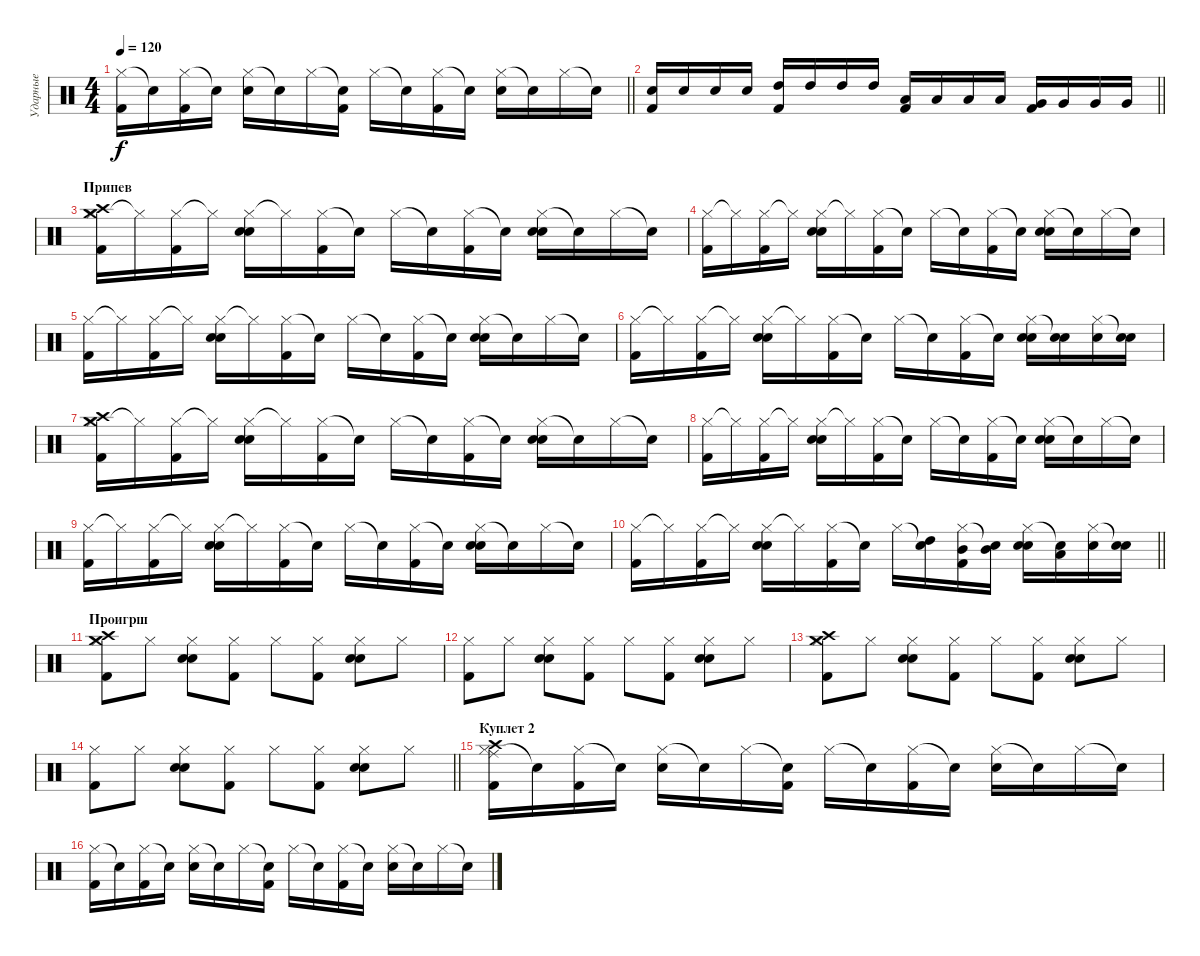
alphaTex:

\track ("Ударные" "Ударные") {instrument percussion}
\staff {score}
\articulation defaults
\ts (4 4)
\tempo 120
\clef neutral
\barLineRight lightlight
\ks c
("Hi-Hat (closed)" "Kick (hit) 2").16{dy f} "Snare (hit)"{t}.16 ("Hi-Hat (closed)" "Kick (hit) 2").16 "Snare (hit)"{t}.16 ("Hi-Hat (closed)" "Snare (hit) 2").16 "Snare (hit)"{t}.16 "Hi-Hat (closed)".16 ("Snare (hit)"{t} "Kick (hit) 2").16 "Hi-Hat (closed)".16 "Snare (hit)"{t}.16 ("Hi-Hat (closed)" "Kick (hit) 2").16 "Snare (hit)"{t}.16 ("Hi-Hat (closed)" "Snare (hit) 2").16 "Snare (hit)"{t}.16 "Hi-Hat (closed)".16 "Snare (hit)"{t}.16 |
\barLineRight lightlight
("Snare (hit) 2" "Kick (hit) 2").16 "Snare (hit) 2".16 "Snare (hit) 2".16 "Snare (hit) 2".16 ("High Tom (hit)" "Kick (hit) 2").16 "High Tom (hit)".16 "High Tom (hit)".16 "High Tom (hit)".16 ("Low Tom (hit)" "Kick (hit) 2").16 "Low Tom (hit)".16 "Low Tom (hit)".16 "Low Tom (hit)".16 ("Very Low Tom (hit)" "Kick (hit) 2").16 "Very Low Tom (hit)".16 "Very Low Tom (hit)".16 "Very Low Tom (hit)".16 |
\section ("" "Припев")
("Hi-Hat (closed)" "Crash medium (hit)" "Crash high (hit)" "Kick (hit) 2").16 "Hi-Hat (closed)"{t}.16 ("Hi-Hat (closed)" "Kick (hit) 2").16 "Hi-Hat (closed)"{t}.16 ("Hi-Hat (closed)" "Electric Snare (hit)" "Snare (hit) 2").16 "Hi-Hat (closed)"{t}.16 ("Hi-Hat (closed)" "Kick (hit) 2").16 "Snare (hit)"{t}.16 "Hi-Hat (closed)".16 "Snare (hit)"{t}.16 ("Hi-Hat (closed)" "Kick (hit) 2").16 "Snare (hit)"{t}.16 ("Hi-Hat (closed)" "Electric Snare (hit)" "Snare (hit) 2").16 "Snare (hit)"{t}.16 "Hi-Hat (closed)".16 "Snare (hit)"{t}.16 |
("Hi-Hat (closed)" "Kick (hit) 2").16 "Hi-Hat (closed)"{t}.16 ("Hi-Hat (closed)" "Kick (hit) 2").16 "Hi-Hat (closed)"{t}.16 ("Hi-Hat (closed)" "Electric Snare (hit)" "Snare (hit) 2").16 "Hi-Hat (closed)"{t}.16 ("Hi-Hat (closed)" "Kick (hit) 2").16 "Snare (hit)"{t}.16 "Hi-Hat (closed)".16 "Snare (hit)"{t}.16 ("Hi-Hat (closed)" "Kick (hit) 2").16 "Snare (hit)"{t}.16 ("Hi-Hat (closed)" "Electric Snare (hit)" "Snare (hit) 2").16 "Snare (hit)"{t}.16 "Hi-Hat (closed)".16 "Snare (hit)"{t}.16 |
("Hi-Hat (closed)" "Kick (hit) 2").16 "Hi-Hat (closed)"{t}.16 ("Hi-Hat (closed)" "Kick (hit) 2").16 "Hi-Hat (closed)"{t}.16 ("Hi-Hat (closed)" "Electric Snare (hit)" "Snare (hit) 2").16 "Hi-Hat (closed)"{t}.16 ("Hi-Hat (closed)" "Kick (hit) 2").16 "Snare (hit)"{t}.16 "Hi-Hat (closed)".16 "Snare (hit)"{t}.16 ("Hi-Hat (closed)" "Kick (hit) 2").16 "Snare (hit)"{t}.16 ("Hi-Hat (closed)" "Electric Snare (hit)" "Snare (hit) 2").16 "Snare (hit)"{t}.16 "Hi-Hat (closed)".16 "Snare (hit)"{t}.16 |
("Hi-Hat (closed)" "Kick (hit) 2").16 "Hi-Hat (closed)"{t}.16 ("Hi-Hat (closed)" "Kick (hit) 2").16 "Hi-Hat (closed)"{t}.16 ("Hi-Hat (closed)" "Electric Snare (hit)" "Snare (hit) 2").16 "Hi-Hat (closed)"{t}.16 ("Hi-Hat (closed)" "Kick (hit) 2").16 "Snare (hit)"{t}.16 "Hi-Hat (closed)".16 "Snare (hit)"{t}.16 ("Hi-Hat (closed)" "Kick (hit) 2").16 "Snare (hit)"{t}.16 ("Hi-Hat (closed)" "Electric Snare (hit)" "Snare (hit) 2").16 ("Snare (hit)"{t} "Electric Snare (hit)").16 ("Hi-Hat (closed)" "Electric Snare (hit)").16 ("Snare (hit)"{t} "Electric Snare (hit)").16 |
("Hi-Hat (closed)" "Crash medium (hit)" "Crash high (hit)" "Kick (hit) 2").16 "Hi-Hat (closed)"{t}.16 ("Hi-Hat (closed)" "Kick (hit) 2").16 "Hi-Hat (closed)"{t}.16 ("Hi-Hat (closed)" "Electric Snare (hit)" "Snare (hit) 2").16 "Hi-Hat (closed)"{t}.16 ("Hi-Hat (closed)" "Kick (hit) 2").16 "Snare (hit)"{t}.16 "Hi-Hat (closed)".16 "Snare (hit)"{t}.16 ("Hi-Hat (closed)" "Kick (hit) 2").16 "Snare (hit)"{t}.16 ("Hi-Hat (closed)" "Electric Snare (hit)" "Snare (hit) 2").16 "Snare (hit)"{t}.16 "Hi-Hat (closed)".16 "Snare (hit)"{t}.16 |
("Hi-Hat (closed)" "Kick (hit) 2").16 "Hi-Hat (closed)"{t}.16 ("Hi-Hat (closed)" "Kick (hit) 2").16 "Hi-Hat (closed)"{t}.16 ("Hi-Hat (closed)" "Electric Snare (hit)" "Snare (hit) 2").16 "Hi-Hat (closed)"{t}.16 ("Hi-Hat (closed)" "Kick (hit) 2").16 "Snare (hit)"{t}.16 "Hi-Hat (closed)".16 "Snare (hit)"{t}.16 ("Hi-Hat (closed)" "Kick (hit) 2").16 "Snare (hit)"{t}.16 ("Hi-Hat (closed)" "Electric Snare (hit)" "Snare (hit) 2").16 "Snare (hit)"{t}.16 "Hi-Hat (closed)".16 "Snare (hit)"{t}.16 |
("Hi-Hat (closed)" "Kick (hit) 2").16 "Hi-Hat (closed)"{t}.16 ("Hi-Hat (closed)" "Kick (hit) 2").16 "Hi-Hat (closed)"{t}.16 ("Hi-Hat (closed)" "Electric Snare (hit)" "Snare (hit) 2").16 "Hi-Hat (closed)"{t}.16 ("Hi-Hat (closed)" "Kick (hit) 2").16 "Snare (hit)"{t}.16 "Hi-Hat (closed)".16 "Snare (hit)"{t}.16 ("Hi-Hat (closed)" "Kick (hit) 2").16 "Snare (hit)"{t}.16 ("Hi-Hat (closed)" "Electric Snare (hit)" "Snare (hit) 2").16 "Snare (hit)"{t}.16 "Hi-Hat (closed)".16 "Snare (hit)"{t}.16 |
\barLineRight lightlight
("Hi-Hat (closed)" "Kick (hit) 2").16 "Hi-Hat (closed)"{t}.16 ("Hi-Hat (closed)" "Kick (hit) 2").16 "Hi-Hat (closed)"{t}.16 ("Hi-Hat (closed)" "Electric Snare (hit)" "Snare (hit) 2").16 "Hi-Hat (closed)"{t}.16 ("Hi-Hat (closed)" "Kick (hit) 2").16 "Snare (hit)"{t}.16 "Hi-Hat (closed)".16 ("Snare (hit)"{t} "High Tom (hit)").16 ("Hi-Hat (closed)" "Mid Tom (hit)" "Kick (hit) 2").16 ("Snare (hit)"{t} "Mid Tom (hit)").16 ("Hi-Hat (closed)" "Electric Snare (hit)" "Snare (hit) 2").16 ("Snare (hit)"{t} "Low Tom (hit)").16 ("Hi-Hat (closed)" "Electric Snare (hit)").16 ("Snare (hit)"{t} "Electric Snare (hit)").16 |
\section ("" "Проигрш")
("Hi-Hat (closed)" "Crash high (hit)" "Crash medium (hit)" "Kick (hit) 2").8 "Hi-Hat (closed)".8 ("Hi-Hat (closed)" "Electric Snare (hit)" "Snare (hit) 2").8 ("Hi-Hat (closed)" "Kick (hit) 2").8 "Hi-Hat (closed)".8 ("Hi-Hat (closed)" "Kick (hit) 2").8 ("Hi-Hat (closed)" "Snare (hit) 2" "Electric Snare (hit)").8 "Hi-Hat (closed)".8 |
("Hi-Hat (closed)" "Kick (hit) 2").8 "Hi-Hat (closed)".8 ("Hi-Hat (closed)" "Electric Snare (hit)" "Snare (hit) 2").8 ("Hi-Hat (closed)" "Kick (hit) 2").8 "Hi-Hat (closed)".8 ("Hi-Hat (closed)" "Kick (hit) 2").8 ("Hi-Hat (closed)" "Snare (hit) 2" "Electric Snare (hit)").8 "Hi-Hat (closed)".8 |
("Hi-Hat (closed)" "Crash high (hit)" "Crash medium (hit)" "Kick (hit) 2").8 "Hi-Hat (closed)".8 ("Hi-Hat (closed)" "Electric Snare (hit)" "Snare (hit) 2").8 ("Hi-Hat (closed)" "Kick (hit) 2").8 "Hi-Hat (closed)".8 ("Hi-Hat (closed)" "Kick (hit) 2").8 ("Hi-Hat (closed)" "Snare (hit) 2" "Electric Snare (hit)").8 "Hi-Hat (closed)".8 |
\barLineRight lightlight
("Hi-Hat (closed)" "Kick (hit) 2").8 "Hi-Hat (closed)".8 ("Hi-Hat (closed)" "Electric Snare (hit)" "Snare (hit) 2").8 ("Hi-Hat (closed)" "Kick (hit) 2").8 "Hi-Hat (closed)".8 ("Hi-Hat (closed)" "Kick (hit) 2").8 ("Hi-Hat (closed)" "Snare (hit) 2" "Electric Snare (hit)").8 "Hi-Hat (closed)".8 |
\section ("" "Куплет 2")
("Hi-Hat (closed)" "Ride (middle)" "Crash high (hit)" "Kick (hit) 2").16 "Snare (hit)"{t}.16 ("Hi-Hat (closed)" "Kick (hit) 2").16 "Snare (hit)"{t}.16 ("Hi-Hat (closed)" "Snare (hit) 2").16 "Snare (hit)"{t}.16 "Hi-Hat (closed)".16 ("Snare (hit)"{t} "Kick (hit) 2").16 "Hi-Hat (closed)".16 "Snare (hit)"{t}.16 ("Hi-Hat (closed)" "Kick (hit) 2").16 "Snare (hit)"{t}.16 ("Hi-Hat (closed)" "Snare (hit) 2").16 "Snare (hit)"{t}.16 "Hi-Hat (closed)".16 "Snare (hit)"{t}.16 |
("Hi-Hat (closed)" "Kick (hit) 2").16 "Snare (hit)"{t}.16 ("Hi-Hat (closed)" "Kick (hit) 2").16 "Snare (hit)"{t}.16 ("Hi-Hat (closed)" "Snare (hit) 2").16 "Snare (hit)"{t}.16 "Hi-Hat (closed)".16 ("Snare (hit)"{t} "Kick (hit) 2").16 "Hi-Hat (closed)".16 "Snare (hit)"{t}.16 ("Hi-Hat (closed)" "Kick (hit) 2").16 "Snare (hit)"{t}.16 ("Hi-Hat (closed)" "Snare (hit) 2").16 "Snare (hit)"{t}.16 "Hi-Hat (closed)".16 "Snare (hit)"{t}.16
